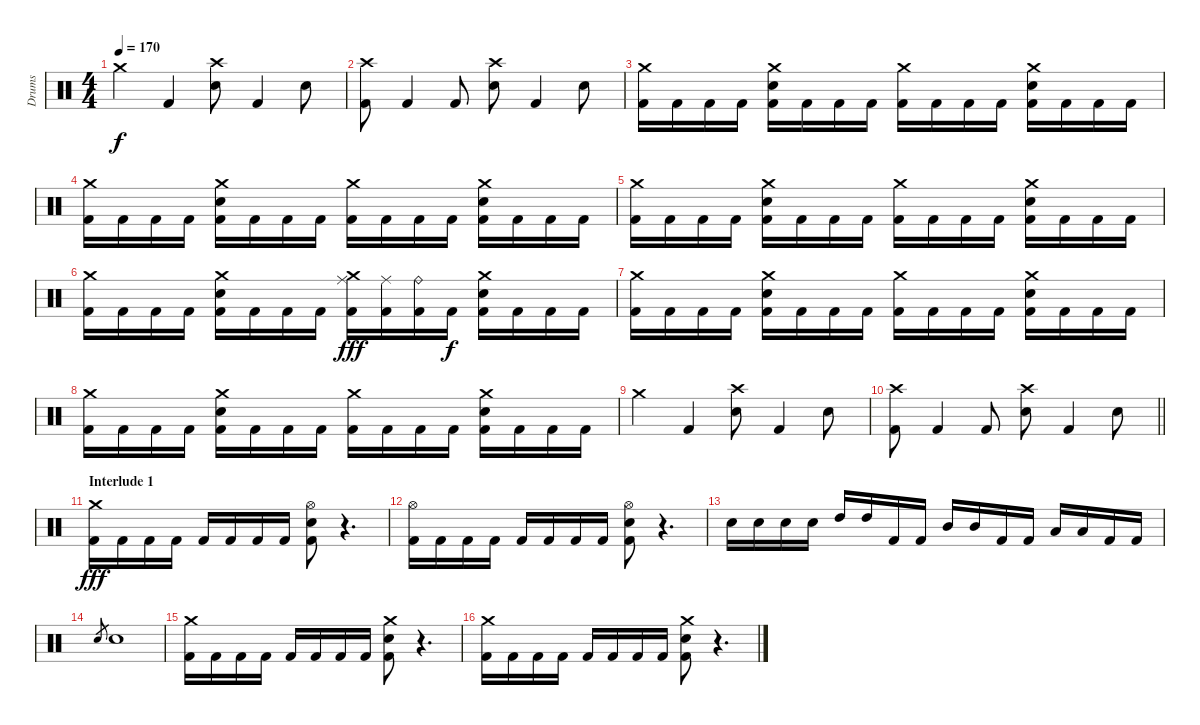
\track ("Drums" "Drums") {instrument percussion}
\staff {score}
\articulation defaults
\ts (4 4)
\tempo 170
\clef neutral
\ks c "Crash medium (hit)".4{dy f} "Kick (hit) 2".4
("Crash high (hit)" "Electric Snare (hit)").8 "Kick (hit) 2".4 "Electric Snare (hit)".8 |
("Crash high (hit)" "Kick (hit) 2").8 "Kick (hit) 2".4 "Kick (hit) 2".8 ("Crash high (hit)" "Electric Snare (hit)").8 "Kick (hit) 2".4 "Electric Snare (hit)".8 |
("Crash medium (hit)" "Kick (hit) 2").16 "Kick (hit) 2".16 "Kick (hit) 2".16 "Kick (hit) 2".16 ("Crash medium (hit)" "Electric Snare (hit)" "Kick (hit) 2").16 "Kick (hit) 2".16 "Kick (hit) 2".16 "Kick (hit) 2".16 ("Crash medium (hit)" "Kick (hit) 2").16 "Kick (hit) 2".16 "Kick (hit) 2".16 "Kick (hit) 2".16 ("Crash medium (hit)" "Electric Snare (hit)" "Kick (hit) 2").16 "Kick (hit) 2".16 "Kick (hit) 2".16 "Kick (hit) 2".16 |
("Crash medium (hit)" "Kick (hit) 2").16 "Kick (hit) 2".16 "Kick (hit) 2".16 "Kick (hit) 2".16 ("Crash medium (hit)" "Electric Snare (hit)" "Kick (hit) 2").16 "Kick (hit) 2".16 "Kick (hit) 2".16 "Kick (hit) 2".16 ("Crash medium (hit)" "Kick (hit) 2").16 "Kick (hit) 2".16 "Kick (hit) 2".16 "Kick (hit) 2".16 ("Crash medium (hit)" "Electric Snare (hit)" "Kick (hit) 2").16 "Kick (hit) 2".16 "Kick (hit) 2".16 "Kick (hit) 2".16 |
("Crash medium (hit)" "Kick (hit) 2").16 "Kick (hit) 2".16 "Kick (hit) 2".16 "Kick (hit) 2".16 ("Crash medium (hit)" "Electric Snare (hit)" "Kick (hit) 2").16 "Kick (hit) 2".16 "Kick (hit) 2".16 "Kick (hit) 2".16 ("Crash medium (hit)" "Kick (hit) 2").16 "Kick (hit) 2".16 "Kick (hit) 2".16 "Kick (hit) 2".16 ("Crash medium (hit)" "Electric Snare (hit)" "Kick (hit) 2").16 "Kick (hit) 2".16 "Kick (hit) 2".16 "Kick (hit) 2".16 |
("Crash medium (hit)" "Kick (hit) 2").16 "Kick (hit) 2".16 "Kick (hit) 2".16 "Kick (hit) 2".16 ("Crash medium (hit)" "Electric Snare (hit)" "Kick (hit) 2").16 "Kick (hit) 2".16 "Kick (hit) 2".16 "Kick (hit) 2".16 ("Crash medium (hit)" "Ride (middle)" "Kick (hit) 2").16{dy fff} ("Ride (middle)" "Kick (hit) 2").16 ("Ride (bell)" "Kick (hit) 2").16 "Kick (hit) 2".16{dy f} ("Crash medium (hit)" "Electric Snare (hit)" "Kick (hit) 2").16 "Kick (hit) 2".16 "Kick (hit) 2".16 "Kick (hit) 2".16 |
("Crash medium (hit)" "Kick (hit) 2").16 "Kick (hit) 2".16 "Kick (hit) 2".16 "Kick (hit) 2".16 ("Crash medium (hit)" "Electric Snare (hit)" "Kick (hit) 2").16 "Kick (hit) 2".16 "Kick (hit) 2".16 "Kick (hit) 2".16 ("Crash medium (hit)" "Kick (hit) 2").16 "Kick (hit) 2".16 "Kick (hit) 2".16 "Kick (hit) 2".16 ("Crash medium (hit)" "Electric Snare (hit)" "Kick (hit) 2").16 "Kick (hit) 2".16 "Kick (hit) 2".16 "Kick (hit) 2".16 |
("Crash medium (hit)" "Kick (hit) 2").16 "Kick (hit) 2".16 "Kick (hit) 2".16 "Kick (hit) 2".16 ("Crash medium (hit)" "Electric Snare (hit)" "Kick (hit) 2").16 "Kick (hit) 2".16 "Kick (hit) 2".16 "Kick (hit) 2".16 ("Crash medium (hit)" "Kick (hit) 2").16 "Kick (hit) 2".16 "Kick (hit) 2".16 "Kick (hit) 2".16 ("Crash medium (hit)" "Electric Snare (hit)" "Kick (hit) 2").16 "Kick (hit) 2".16 "Kick (hit) 2".16 "Kick (hit) 2".16 |
"Crash medium (hit)".4 "Kick (hit) 2".4 ("Crash high (hit)" "Electric Snare (hit)").8 "Kick (hit) 2".4 "Electric Snare (hit)".8 |
\barLineRight lightlight
("Crash high (hit)" "Kick (hit) 2").8 "Kick (hit) 2".4 "Kick (hit) 2".8 ("Crash high (hit)" "Electric Snare (hit)").8 "Kick (hit) 2".4 "Electric Snare (hit)".8 |
\section ("" "Interlude 1")
("Crash medium (hit)" "Kick (hit) 2").16{dy fff} "Kick (hit) 2".16 "Kick (hit) 2".16 "Kick (hit) 2".16 "Kick (hit) 2".16 "Kick (hit) 2".16 "Kick (hit) 2".16 "Kick (hit) 2".16 ("Hi-Hat (open)" "Electric Snare (hit)" "Kick (hit) 2").8 r.4{d} |
("Hi-Hat (open)" "Kick (hit) 2").16 "Kick (hit) 2".16 "Kick (hit) 2".16 "Kick (hit) 2".16 "Kick (hit) 2".16 "Kick (hit) 2".16 "Kick (hit) 2".16 "Kick (hit) 2".16 ("Hi-Hat (open)" "Electric Snare (hit)" "Kick (hit) 2").8 r.4{d} |
"Electric Snare (hit)".16 "Electric Snare (hit)".16 "Electric Snare (hit)".16 "Electric Snare (hit)".16 "High Tom (hit)".16 "High Tom (hit)".16 "Kick (hit) 2".16 "Kick (hit) 2".16 "Mid Tom (hit)".16 "Mid Tom (hit)".16 "Kick (hit) 2".16 "Kick (hit) 2".16 "Low Tom (hit)".16 "Low Tom (hit)".16 "Kick (hit) 2".16 "Kick (hit) 2".16 |
"Electric Snare (hit)".8{gr} "Electric Snare (hit)".1 |
("Crash medium (hit)" "Kick (hit) 2").16 "Kick (hit) 2".16 "Kick (hit) 2".16 "Kick (hit) 2".16 "Kick (hit) 2".16 "Kick (hit) 2".16 "Kick (hit) 2".16 "Kick (hit) 2".16 ("Crash medium (hit)" "Electric Snare (hit)" "Kick (hit) 2").8 r.4{d} |
("Crash medium (hit)" "Kick (hit) 2").16 "Kick (hit) 2".16 "Kick (hit) 2".16 "Kick (hit) 2".16 "Kick (hit) 2".16 "Kick (hit) 2".16 "Kick (hit) 2".16 "Kick (hit) 2".16 ("Crash medium (hit)" "Electric Snare (hit)" "Kick (hit) 2").8 r.4{d}
